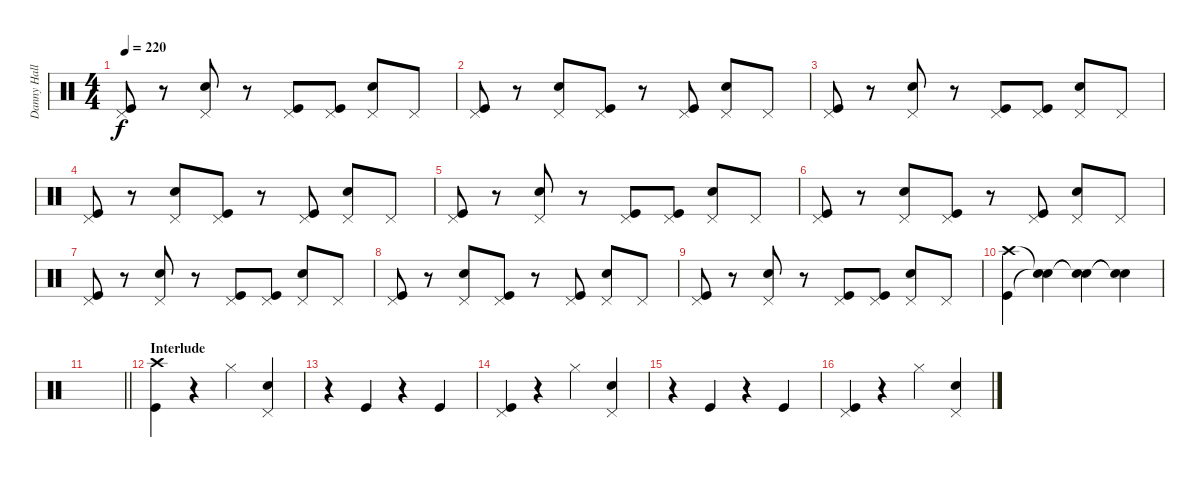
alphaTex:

\track ("Danny Hall" "Danny Hall") {instrument percussion}
\staff {score}
\articulation defaults
\ts (4 4)
\tempo 220
\clef neutral
\ks c
("Pedal Hi-Hat (hit)" "Kick (hit)").8{dy f} r.8 ("Pedal Hi-Hat (hit)" "Snare (hit) 2").8 r.8 ("Pedal Hi-Hat (hit)" "Kick (hit)").8 ("Pedal Hi-Hat (hit)" "Kick (hit)").8 ("Pedal Hi-Hat (hit)" "Snare (hit) 2").8 "Pedal Hi-Hat (hit)".8 |
("Pedal Hi-Hat (hit)" "Kick (hit)").8 r.8 ("Pedal Hi-Hat (hit)" "Snare (hit) 2").8 ("Pedal Hi-Hat (hit)" "Kick (hit)").8 r.8 ("Pedal Hi-Hat (hit)" "Kick (hit)").8 ("Pedal Hi-Hat (hit)" "Snare (hit) 2").8 "Pedal Hi-Hat (hit)".8 |
("Pedal Hi-Hat (hit)" "Kick (hit)").8 r.8 ("Pedal Hi-Hat (hit)" "Snare (hit) 2").8 r.8 ("Pedal Hi-Hat (hit)" "Kick (hit)").8 ("Pedal Hi-Hat (hit)" "Kick (hit)").8 ("Pedal Hi-Hat (hit)" "Snare (hit) 2").8 "Pedal Hi-Hat (hit)".8 |
("Pedal Hi-Hat (hit)" "Kick (hit)").8 r.8 ("Pedal Hi-Hat (hit)" "Snare (hit) 2").8 ("Pedal Hi-Hat (hit)" "Kick (hit)").8 r.8 ("Pedal Hi-Hat (hit)" "Kick (hit)").8 ("Pedal Hi-Hat (hit)" "Snare (hit) 2").8 "Pedal Hi-Hat (hit)".8 |
("Pedal Hi-Hat (hit)" "Kick (hit)").8 r.8 ("Pedal Hi-Hat (hit)" "Snare (hit) 2").8 r.8 ("Pedal Hi-Hat (hit)" "Kick (hit)").8 ("Pedal Hi-Hat (hit)" "Kick (hit)").8 ("Pedal Hi-Hat (hit)" "Snare (hit) 2").8 "Pedal Hi-Hat (hit)".8 |
("Pedal Hi-Hat (hit)" "Kick (hit)").8 r.8 ("Pedal Hi-Hat (hit)" "Snare (hit) 2").8 ("Pedal Hi-Hat (hit)" "Kick (hit)").8 r.8 ("Pedal Hi-Hat (hit)" "Kick (hit)").8 ("Pedal Hi-Hat (hit)" "Snare (hit) 2").8 "Pedal Hi-Hat (hit)".8 |
("Pedal Hi-Hat (hit)" "Kick (hit)").8 r.8 ("Pedal Hi-Hat (hit)" "Snare (hit) 2").8 r.8 ("Pedal Hi-Hat (hit)" "Kick (hit)").8 ("Pedal Hi-Hat (hit)" "Kick (hit)").8 ("Pedal Hi-Hat (hit)" "Snare (hit) 2").8 "Pedal Hi-Hat (hit)".8 |
("Pedal Hi-Hat (hit)" "Kick (hit)").8 r.8 ("Pedal Hi-Hat (hit)" "Snare (hit) 2").8 ("Pedal Hi-Hat (hit)" "Kick (hit)").8 r.8 ("Pedal Hi-Hat (hit)" "Kick (hit)").8 ("Pedal Hi-Hat (hit)" "Snare (hit) 2").8 "Pedal Hi-Hat (hit)".8 |
("Pedal Hi-Hat (hit)" "Kick (hit)").8 r.8 ("Pedal Hi-Hat (hit)" "Snare (hit) 2").8 r.8 ("Pedal Hi-Hat (hit)" "Kick (hit)").8 ("Pedal Hi-Hat (hit)" "Kick (hit)").8 ("Pedal Hi-Hat (hit)" "Snare (hit) 2").8 "Pedal Hi-Hat (hit)".8 |
("Crash high (hit)" "Kick (hit)").4 ("Snare (hit)"{t} "Snare (hit)"{t}).4 ("Snare (hit)"{t} "Snare (hit)"{t}).4 ("Snare (hit)"{t} "Snare (hit)"{t}).4 |
\barLineRight lightlight
|
\section ("" "Interlude")
("Crash high (hit)" "Kick (hit)").4 r.4 "Hi-Hat (closed)".4 ("Pedal Hi-Hat (hit)" "Snare (hit) 2").4 |
r.4 "Kick (hit)".4 r.4 "Kick (hit)".4 |
("Pedal Hi-Hat (hit)" "Kick (hit)").4 r.4 "Hi-Hat (closed)".4 ("Pedal Hi-Hat (hit)" "Snare (hit) 2").4 |
r.4 "Kick (hit)".4 r.4 "Kick (hit)".4 |
("Pedal Hi-Hat (hit)" "Kick (hit)").4 r.4 "Hi-Hat (closed)".4 ("Pedal Hi-Hat (hit)" "Snare (hit) 2").4
